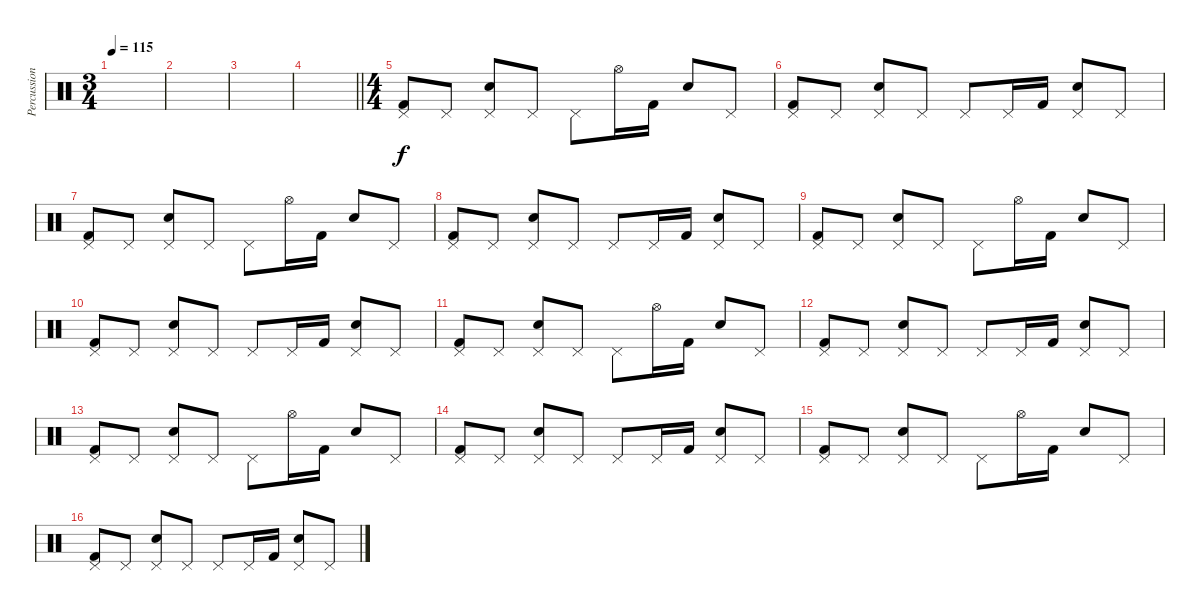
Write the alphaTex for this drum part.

\track ("Percussions" "Percussion") {instrument percussion}
\staff {score}
\articulation defaults
\ts (3 4)
\tempo 115
\clef neutral
\ks c
|
|
|
\barLineRight lightlight
|
\ts (4 4)
("Pedal Hi-Hat (hit)" "Kick (hit) 2").8 "Pedal Hi-Hat (hit)".8 ("Pedal Hi-Hat (hit)" "Snare (hit) 2").8 "Pedal Hi-Hat (hit)".8 "Pedal Hi-Hat (hit)".8 "Hi-Hat (open)".16 "Kick (hit) 2".16 "Snare (hit) 2".8 "Pedal Hi-Hat (hit)".8 |
("Pedal Hi-Hat (hit)" "Kick (hit) 2").8 "Pedal Hi-Hat (hit)".8 ("Pedal Hi-Hat (hit)" "Snare (hit) 2").8 "Pedal Hi-Hat (hit)".8 "Pedal Hi-Hat (hit)".8 "Pedal Hi-Hat (hit)".16 "Kick (hit) 2".16 ("Pedal Hi-Hat (hit)" "Snare (hit) 2").8 "Pedal Hi-Hat (hit)".8 |
("Pedal Hi-Hat (hit)" "Kick (hit) 2").8 "Pedal Hi-Hat (hit)".8 ("Pedal Hi-Hat (hit)" "Snare (hit) 2").8 "Pedal Hi-Hat (hit)".8 "Pedal Hi-Hat (hit)".8 "Hi-Hat (open)".16 "Kick (hit) 2".16 "Snare (hit) 2".8 "Pedal Hi-Hat (hit)".8 |
("Pedal Hi-Hat (hit)" "Kick (hit) 2").8 "Pedal Hi-Hat (hit)".8 ("Pedal Hi-Hat (hit)" "Snare (hit) 2").8 "Pedal Hi-Hat (hit)".8 "Pedal Hi-Hat (hit)".8 "Pedal Hi-Hat (hit)".16 "Kick (hit) 2".16 ("Pedal Hi-Hat (hit)" "Snare (hit) 2").8 "Pedal Hi-Hat (hit)".8 |
("Pedal Hi-Hat (hit)" "Kick (hit) 2").8 "Pedal Hi-Hat (hit)".8 ("Pedal Hi-Hat (hit)" "Snare (hit) 2").8 "Pedal Hi-Hat (hit)".8 "Pedal Hi-Hat (hit)".8 "Hi-Hat (open)".16 "Kick (hit) 2".16 "Snare (hit) 2".8 "Pedal Hi-Hat (hit)".8 |
("Pedal Hi-Hat (hit)" "Kick (hit) 2").8 "Pedal Hi-Hat (hit)".8 ("Pedal Hi-Hat (hit)" "Snare (hit) 2").8 "Pedal Hi-Hat (hit)".8 "Pedal Hi-Hat (hit)".8 "Pedal Hi-Hat (hit)".16 "Kick (hit) 2".16 ("Pedal Hi-Hat (hit)" "Snare (hit) 2").8 "Pedal Hi-Hat (hit)".8 |
("Pedal Hi-Hat (hit)" "Kick (hit) 2").8 "Pedal Hi-Hat (hit)".8 ("Pedal Hi-Hat (hit)" "Snare (hit) 2").8 "Pedal Hi-Hat (hit)".8 "Pedal Hi-Hat (hit)".8 "Hi-Hat (open)".16 "Kick (hit) 2".16 "Snare (hit) 2".8 "Pedal Hi-Hat (hit)".8 |
("Pedal Hi-Hat (hit)" "Kick (hit) 2").8 "Pedal Hi-Hat (hit)".8 ("Pedal Hi-Hat (hit)" "Snare (hit) 2").8 "Pedal Hi-Hat (hit)".8 "Pedal Hi-Hat (hit)".8 "Pedal Hi-Hat (hit)".16 "Kick (hit) 2".16 ("Pedal Hi-Hat (hit)" "Snare (hit) 2").8 "Pedal Hi-Hat (hit)".8 |
("Pedal Hi-Hat (hit)" "Kick (hit) 2").8 "Pedal Hi-Hat (hit)".8 ("Pedal Hi-Hat (hit)" "Snare (hit) 2").8 "Pedal Hi-Hat (hit)".8 "Pedal Hi-Hat (hit)".8 "Hi-Hat (open)".16 "Kick (hit) 2".16 "Snare (hit) 2".8 "Pedal Hi-Hat (hit)".8 |
("Pedal Hi-Hat (hit)" "Kick (hit) 2").8 "Pedal Hi-Hat (hit)".8 ("Pedal Hi-Hat (hit)" "Snare (hit) 2").8 "Pedal Hi-Hat (hit)".8 "Pedal Hi-Hat (hit)".8 "Pedal Hi-Hat (hit)".16 "Kick (hit) 2".16 ("Pedal Hi-Hat (hit)" "Snare (hit) 2").8 "Pedal Hi-Hat (hit)".8 |
("Pedal Hi-Hat (hit)" "Kick (hit) 2").8 "Pedal Hi-Hat (hit)".8 ("Pedal Hi-Hat (hit)" "Snare (hit) 2").8 "Pedal Hi-Hat (hit)".8 "Pedal Hi-Hat (hit)".8 "Hi-Hat (open)".16 "Kick (hit) 2".16 "Snare (hit) 2".8 "Pedal Hi-Hat (hit)".8 |
("Pedal Hi-Hat (hit)" "Kick (hit) 2").8 "Pedal Hi-Hat (hit)".8 ("Pedal Hi-Hat (hit)" "Snare (hit) 2").8 "Pedal Hi-Hat (hit)".8 "Pedal Hi-Hat (hit)".8 "Pedal Hi-Hat (hit)".16 "Kick (hit) 2".16 ("Pedal Hi-Hat (hit)" "Snare (hit) 2").8 "Pedal Hi-Hat (hit)".8
